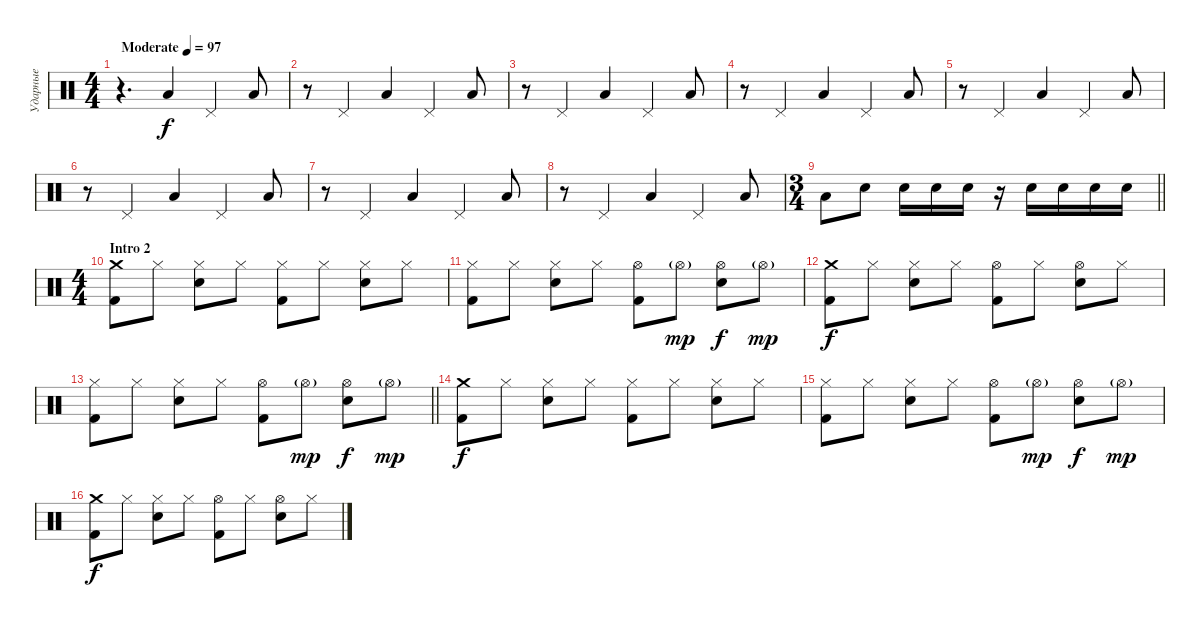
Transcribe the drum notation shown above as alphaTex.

\track ("Ударные" "Ударные") {instrument percussion}
\staff {score}
\articulation defaults
\ts (4 4)
\section ("" "")
\tempo (97 "Moderate")
\clef neutral
\ks c
r.4{d dy f} "Low Floor Tom (hit)".4 "Pedal Hi-Hat (hit)".4 "Low Floor Tom (hit)".8 |
r.8 "Pedal Hi-Hat (hit)".4 "Low Floor Tom (hit)".4 "Pedal Hi-Hat (hit)".4 "Low Floor Tom (hit)".8 |
r.8 "Pedal Hi-Hat (hit)".4 "Low Floor Tom (hit)".4 "Pedal Hi-Hat (hit)".4 "Low Floor Tom (hit)".8 |
r.8 "Pedal Hi-Hat (hit)".4 "Low Floor Tom (hit)".4 "Pedal Hi-Hat (hit)".4 "Low Floor Tom (hit)".8 |
r.8 "Pedal Hi-Hat (hit)".4 "Low Floor Tom (hit)".4 "Pedal Hi-Hat (hit)".4 "Low Floor Tom (hit)".8 |
r.8 "Pedal Hi-Hat (hit)".4 "Low Floor Tom (hit)".4 "Pedal Hi-Hat (hit)".4 "Low Floor Tom (hit)".8 |
r.8 "Pedal Hi-Hat (hit)".4 "Low Floor Tom (hit)".4 "Pedal Hi-Hat (hit)".4 "Low Floor Tom (hit)".8 |
r.8 "Pedal Hi-Hat (hit)".4 "Low Floor Tom (hit)".4 "Pedal Hi-Hat (hit)".4 "Low Floor Tom (hit)".8 |
\ts (3 4)
\barLineRight lightlight "Low Floor Tom (hit)".8 "Snare (hit) 2".8 "Snare (hit) 2".16 "Snare (hit) 2".16 "Snare (hit) 2".16
r.16 "Snare (hit) 2".16 "Snare (hit) 2".16 "Snare (hit) 2".16 "Snare (hit) 2".16 |
\ts (4 4)
\section ("" "Intro 2")
("Crash medium (hit)" "Kick (hit) 2").8 "Hi-Hat (closed)".8 ("Snare (hit) 2" "Hi-Hat (closed)").8 "Hi-Hat (closed)".8 ("Kick (hit) 2" "Hi-Hat (closed)").8 "Hi-Hat (closed)".8 ("Snare (hit) 2" "Hi-Hat (closed)").8 "Hi-Hat (closed)".8 |
("Kick (hit) 2" "Hi-Hat (closed)").8 "Hi-Hat (closed)".8 ("Snare (hit) 2" "Hi-Hat (closed)").8 "Hi-Hat (closed)".8 ("Kick (hit) 2" "Hi-Hat (open)").8 "Hi-Hat (open)"{g}.8{dy mp} ("Snare (hit) 2" "Hi-Hat (open)").8{dy f} "Hi-Hat (open)"{g}.8{dy mp} |
("Crash medium (hit)" "Kick (hit) 2").8{dy f} "Hi-Hat (closed)".8 ("Snare (hit) 2" "Hi-Hat (closed)").8 "Hi-Hat (closed)".8 ("Kick (hit) 2" "Hi-Hat (open)").8 "Hi-Hat (closed)".8 ("Snare (hit) 2" "Hi-Hat (open)").8 "Hi-Hat (closed)".8 |
\barLineRight lightlight
("Kick (hit) 2" "Hi-Hat (closed)").8 "Hi-Hat (closed)".8 ("Snare (hit) 2" "Hi-Hat (closed)").8 "Hi-Hat (closed)".8 ("Kick (hit) 2" "Hi-Hat (open)").8 "Hi-Hat (open)"{g}.8{dy mp} ("Snare (hit) 2" "Hi-Hat (open)").8{dy f} "Hi-Hat (open)"{g}.8{dy mp} |
\section ("" "")
("Crash medium (hit)" "Kick (hit) 2").8{dy f} "Hi-Hat (closed)".8 ("Snare (hit) 2" "Hi-Hat (closed)").8 "Hi-Hat (closed)".8 ("Kick (hit) 2" "Hi-Hat (closed)").8 "Hi-Hat (closed)".8 ("Snare (hit) 2" "Hi-Hat (closed)").8 "Hi-Hat (closed)".8 |
("Kick (hit) 2" "Hi-Hat (closed)").8 "Hi-Hat (closed)".8 ("Snare (hit) 2" "Hi-Hat (closed)").8 "Hi-Hat (closed)".8 ("Kick (hit) 2" "Hi-Hat (open)").8 "Hi-Hat (open)"{g}.8{dy mp} ("Snare (hit) 2" "Hi-Hat (open)").8{dy f} "Hi-Hat (open)"{g}.8{dy mp} |
("Crash medium (hit)" "Kick (hit) 2").8{dy f} "Hi-Hat (closed)".8 ("Snare (hit) 2" "Hi-Hat (closed)").8 "Hi-Hat (closed)".8 ("Kick (hit) 2" "Hi-Hat (open)").8 "Hi-Hat (closed)".8 ("Snare (hit) 2" "Hi-Hat (open)").8 "Hi-Hat (closed)".8
